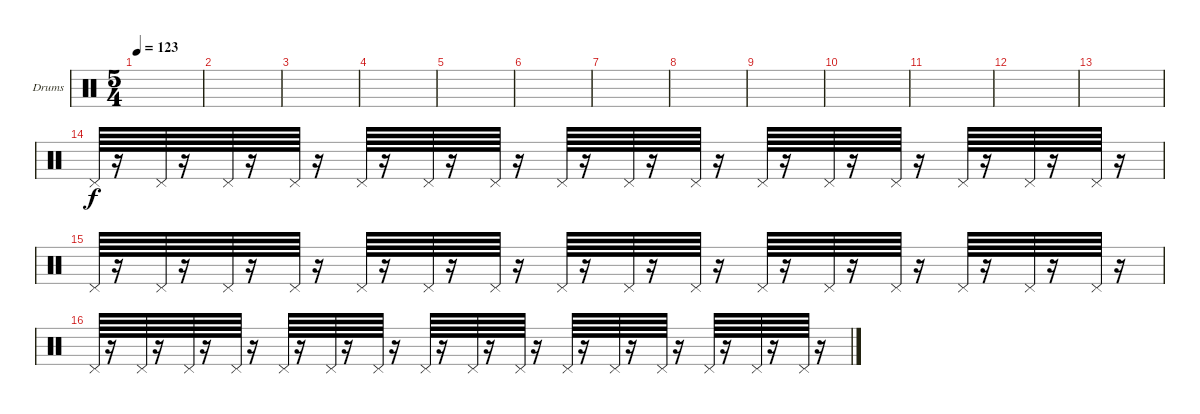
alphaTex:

\defaultSystemsLayout 4
\bracketExtendMode groupsimilarinstruments
\firstSystemTrackNameOrientation horizontal
\otherSystemsTrackNameOrientation horizontal
\track ("Drumkit" "Drums") {instrument percussion}
\staff {score}
\articulation defaults
\ts (5 4)
\tempo 123
\clef neutral
\ks c
|
|
|
|
|
|
|
|
|
|
|
|
|
"Pedal Hi-Hat (hit)".64 r.16 "Pedal Hi-Hat (hit)".64 r.16 "Pedal Hi-Hat (hit)".64 r.16 "Pedal Hi-Hat (hit)".64 r.16 "Pedal Hi-Hat (hit)".64 r.16 "Pedal Hi-Hat (hit)".64 r.16 "Pedal Hi-Hat (hit)".64 r.16 "Pedal Hi-Hat (hit)".64 r.16 "Pedal Hi-Hat (hit)".64 r.16 "Pedal Hi-Hat (hit)".64 r.16 "Pedal Hi-Hat (hit)".64 r.16 "Pedal Hi-Hat (hit)".64 r.16 "Pedal Hi-Hat (hit)".64 r.16 "Pedal Hi-Hat (hit)".64 r.16 "Pedal Hi-Hat (hit)".64 r.16 "Pedal Hi-Hat (hit)".64 r.16 |
"Pedal Hi-Hat (hit)".64 r.16 "Pedal Hi-Hat (hit)".64 r.16 "Pedal Hi-Hat (hit)".64 r.16 "Pedal Hi-Hat (hit)".64 r.16 "Pedal Hi-Hat (hit)".64 r.16 "Pedal Hi-Hat (hit)".64 r.16 "Pedal Hi-Hat (hit)".64 r.16 "Pedal Hi-Hat (hit)".64 r.16 "Pedal Hi-Hat (hit)".64 r.16 "Pedal Hi-Hat (hit)".64 r.16 "Pedal Hi-Hat (hit)".64 r.16 "Pedal Hi-Hat (hit)".64 r.16 "Pedal Hi-Hat (hit)".64 r.16 "Pedal Hi-Hat (hit)".64 r.16 "Pedal Hi-Hat (hit)".64 r.16 "Pedal Hi-Hat (hit)".64 r.16 |
"Pedal Hi-Hat (hit)".64 r.16 "Pedal Hi-Hat (hit)".64 r.16 "Pedal Hi-Hat (hit)".64 r.16 "Pedal Hi-Hat (hit)".64 r.16 "Pedal Hi-Hat (hit)".64 r.16 "Pedal Hi-Hat (hit)".64 r.16 "Pedal Hi-Hat (hit)".64 r.16 "Pedal Hi-Hat (hit)".64 r.16 "Pedal Hi-Hat (hit)".64 r.16 "Pedal Hi-Hat (hit)".64 r.16 "Pedal Hi-Hat (hit)".64 r.16 "Pedal Hi-Hat (hit)".64 r.16 "Pedal Hi-Hat (hit)".64 r.16 "Pedal Hi-Hat (hit)".64 r.16 "Pedal Hi-Hat (hit)".64 r.16 "Pedal Hi-Hat (hit)".64 r.16
